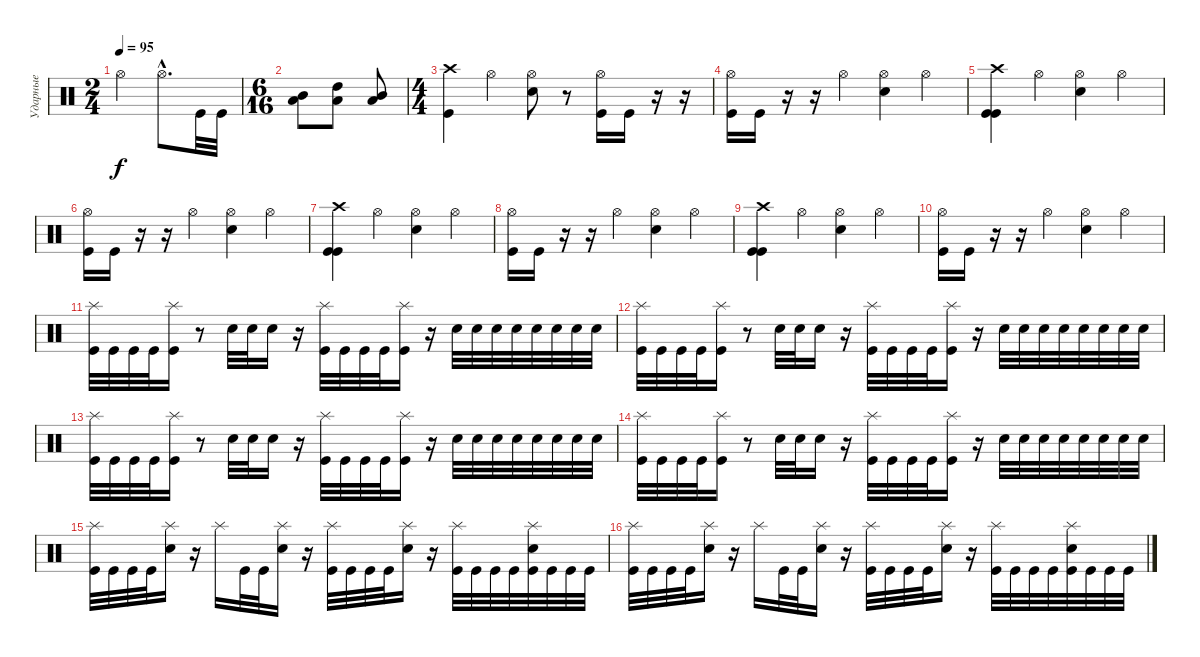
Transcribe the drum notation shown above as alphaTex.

\track ("Ударные" "Ударные") {instrument percussion}
\staff {score}
\articulation defaults
\ts (2 4)
\tempo 95
\clef neutral
\ks c "Hi-Hat (open)".4{dy f} "Hi-Hat (open)"{hac}.8{d} "Kick (hit)".32 "Kick (hit)".32
|
\ts (6 16)
("Mid Tom (hit)" "Low Tom (hit)").8 ("High Tom (hit)" "Low Tom (hit)").8 ("Mid Tom (hit)" "Low Tom (hit)").8 |
\ts (4 4)
("Crash high (hit)" "Kick (hit)").4 "Hi-Hat (open)".4 ("Hi-Hat (open)" "Electric Snare (hit)").8 r.8 ("Hi-Hat (open)" "Kick (hit)").16 "Kick (hit)".16 r.16 r.16 |
("Hi-Hat (open)" "Kick (hit)").16 "Kick (hit)".16 r.16 r.16 "Hi-Hat (open)".4 ("Hi-Hat (open)" "Electric Snare (hit)").4 "Hi-Hat (open)".4 |
("Crash high (hit)" "Kick (hit)" "Kick (hit)").4 "Hi-Hat (open)".4 ("Hi-Hat (open)" "Electric Snare (hit)").4 "Hi-Hat (open)".4 |
("Hi-Hat (open)" "Kick (hit)").16 "Kick (hit)".16 r.16 r.16 "Hi-Hat (open)".4 ("Hi-Hat (open)" "Electric Snare (hit)").4 "Hi-Hat (open)".4 |
("Crash high (hit)" "Kick (hit)" "Kick (hit)").4 "Hi-Hat (open)".4 ("Hi-Hat (open)" "Electric Snare (hit)").4 "Hi-Hat (open)".4 |
("Hi-Hat (open)" "Kick (hit)").16 "Kick (hit)".16 r.16 r.16 "Hi-Hat (open)".4 ("Hi-Hat (open)" "Electric Snare (hit)").4 "Hi-Hat (open)".4 |
("Crash high (hit)" "Kick (hit)" "Kick (hit)").4 "Hi-Hat (open)".4 ("Hi-Hat (open)" "Electric Snare (hit)").4 "Hi-Hat (open)".4 |
("Hi-Hat (open)" "Kick (hit)").16 "Kick (hit)".16 r.16 r.16 "Hi-Hat (open)".4 ("Hi-Hat (open)" "Electric Snare (hit)").4 "Hi-Hat (open)".4 |
("Kick (hit)" "Splash (hit)").32 "Kick (hit)".32 "Kick (hit)".32 "Kick (hit)".32 ("Kick (hit)" "Splash (hit)").16 r.8 "Electric Snare (hit)".32 "Electric Snare (hit)".32 "Electric Snare (hit)".16 r.16 ("Kick (hit)" "Splash (hit)").32 "Kick (hit)".32 "Kick (hit)".32 "Kick (hit)".32 ("Kick (hit)" "Splash (hit)").16 r.16 "Electric Snare (hit)".32 "Electric Snare (hit)".32 "Electric Snare (hit)".32 "Electric Snare (hit)".32 "Electric Snare (hit)".32 "Electric Snare (hit)".32 "Electric Snare (hit)".32 "Electric Snare (hit)".32 |
("Kick (hit)" "Splash (hit)").32 "Kick (hit)".32 "Kick (hit)".32 "Kick (hit)".32 ("Kick (hit)" "Splash (hit)").16 r.8 "Electric Snare (hit)".32 "Electric Snare (hit)".32 "Electric Snare (hit)".16 r.16 ("Kick (hit)" "Splash (hit)").32 "Kick (hit)".32 "Kick (hit)".32 "Kick (hit)".32 ("Kick (hit)" "Splash (hit)").16 r.16 "Electric Snare (hit)".32 "Electric Snare (hit)".32 "Electric Snare (hit)".32 "Electric Snare (hit)".32 "Electric Snare (hit)".32 "Electric Snare (hit)".32 "Electric Snare (hit)".32 "Electric Snare (hit)".32 |
("Kick (hit)" "Splash (hit)").32 "Kick (hit)".32 "Kick (hit)".32 "Kick (hit)".32 ("Kick (hit)" "Splash (hit)").16 r.8 "Electric Snare (hit)".32 "Electric Snare (hit)".32 "Electric Snare (hit)".16 r.16 ("Kick (hit)" "Splash (hit)").32 "Kick (hit)".32 "Kick (hit)".32 "Kick (hit)".32 ("Kick (hit)" "Splash (hit)").16 r.16 "Electric Snare (hit)".32 "Electric Snare (hit)".32 "Electric Snare (hit)".32 "Electric Snare (hit)".32 "Electric Snare (hit)".32 "Electric Snare (hit)".32 "Electric Snare (hit)".32 "Electric Snare (hit)".32 |
("Kick (hit)" "Splash (hit)").32 "Kick (hit)".32 "Kick (hit)".32 "Kick (hit)".32 ("Kick (hit)" "Splash (hit)").16 r.8 "Electric Snare (hit)".32 "Electric Snare (hit)".32 "Electric Snare (hit)".16 r.16 ("Kick (hit)" "Splash (hit)").32 "Kick (hit)".32 "Kick (hit)".32 "Kick (hit)".32 ("Kick (hit)" "Splash (hit)").16 r.16 "Electric Snare (hit)".32 "Electric Snare (hit)".32 "Electric Snare (hit)".32 "Electric Snare (hit)".32 "Electric Snare (hit)".32 "Electric Snare (hit)".32 "Electric Snare (hit)".32 "Electric Snare (hit)".32 |
("Kick (hit)" "Splash (hit)").32 "Kick (hit)".32 "Kick (hit)".32 "Kick (hit)".32 ("Electric Snare (hit)" "Splash (hit)").16 r.16 "Splash (hit)".16 "Kick (hit)".32 "Kick (hit)".32 ("Electric Snare (hit)" "Splash (hit)").16 r.16 ("Kick (hit)" "Splash (hit)").32 "Kick (hit)".32 "Kick (hit)".32 "Kick (hit)".32 ("Electric Snare (hit)" "Splash (hit)").16 r.16 ("Kick (hit)" "Splash (hit)").32 "Kick (hit)".32 "Kick (hit)".32 "Kick (hit)".32 ("Kick (hit)" "Electric Snare (hit)" "Splash (hit)").32 "Kick (hit)".32 "Kick (hit)".32 "Kick (hit)".32 |
("Kick (hit)" "Splash (hit)").32 "Kick (hit)".32 "Kick (hit)".32 "Kick (hit)".32 ("Electric Snare (hit)" "Splash (hit)").16 r.16 "Splash (hit)".16 "Kick (hit)".32 "Kick (hit)".32 ("Electric Snare (hit)" "Splash (hit)").16 r.16 ("Kick (hit)" "Splash (hit)").32 "Kick (hit)".32 "Kick (hit)".32 "Kick (hit)".32 ("Electric Snare (hit)" "Splash (hit)").16 r.16 ("Kick (hit)" "Splash (hit)").32 "Kick (hit)".32 "Kick (hit)".32 "Kick (hit)".32 ("Kick (hit)" "Electric Snare (hit)" "Splash (hit)").32 "Kick (hit)".32 "Kick (hit)".32 "Kick (hit)".32
